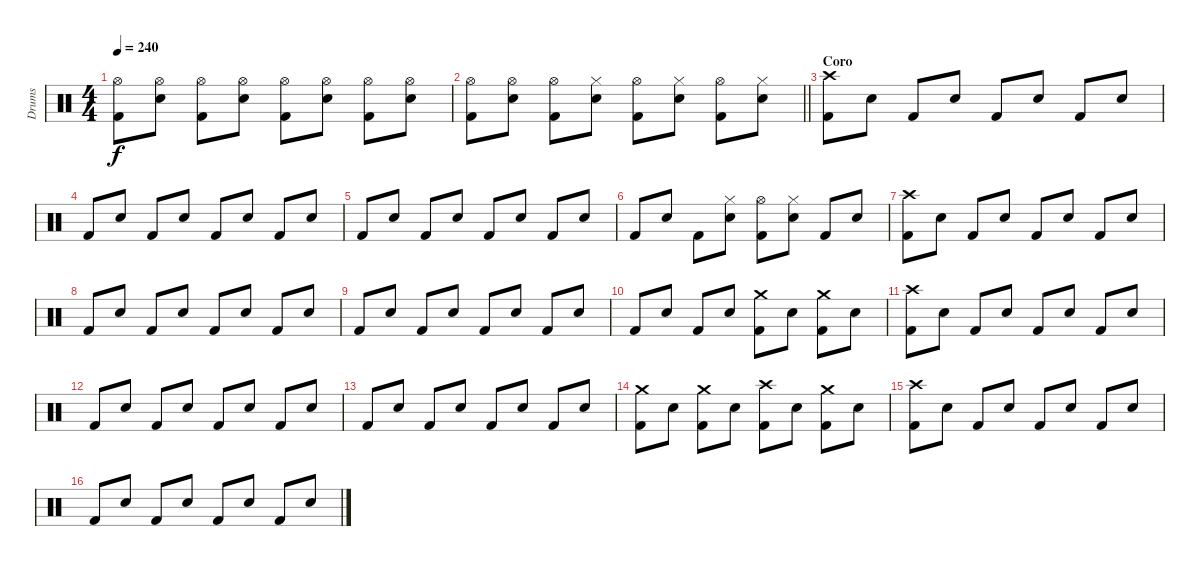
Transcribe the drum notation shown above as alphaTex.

\track ("Drums" "Drums") {instrument percussion}
\staff {score}
\articulation defaults
\ts (4 4)
\tempo 240
\clef neutral
\ks c
("Hi-Hat (open)" "Kick (hit) 2").8{dy f} ("Hi-Hat (open)" "Snare (hit) 2").8 ("Hi-Hat (open)" "Kick (hit) 2").8 ("Hi-Hat (open)" "Snare (hit) 2").8 ("Hi-Hat (open)" "Kick (hit) 2").8 ("Hi-Hat (open)" "Snare (hit) 2").8 ("Hi-Hat (open)" "Kick (hit) 2").8 ("Hi-Hat (open)" "Snare (hit) 2").8 |
\barLineRight lightlight
("Hi-Hat (open)" "Kick (hit) 2").8 ("Hi-Hat (open)" "Snare (hit) 2").8 ("Hi-Hat (open)" "Kick (hit) 2").8 ("Hi-Hat (closed)" "Snare (hit) 2").8 ("Hi-Hat (open)" "Kick (hit) 2").8 ("Hi-Hat (closed)" "Snare (hit) 2").8 ("Hi-Hat (open)" "Kick (hit) 2").8 ("Hi-Hat (closed)" "Snare (hit) 2").8 |
\section ("" "Coro")
("Crash high (hit)" "Kick (hit) 2").8 "Snare (hit) 2".8 "Kick (hit) 2".8 "Snare (hit) 2".8 "Kick (hit) 2".8 "Snare (hit) 2".8 "Kick (hit) 2".8 "Snare (hit) 2".8 |
"Kick (hit) 2".8 "Snare (hit) 2".8 "Kick (hit) 2".8 "Snare (hit) 2".8 "Kick (hit) 2".8 "Snare (hit) 2".8 "Kick (hit) 2".8 "Snare (hit) 2".8 |
"Kick (hit) 2".8 "Snare (hit) 2".8 "Kick (hit) 2".8 "Snare (hit) 2".8 "Kick (hit) 2".8 "Snare (hit) 2".8 "Kick (hit) 2".8 "Snare (hit) 2".8 |
"Kick (hit) 2".8 "Snare (hit) 2".8 "Kick (hit) 2".8 ("Hi-Hat (closed)" "Snare (hit) 2").8 ("Hi-Hat (open)" "Kick (hit) 2").8 ("Hi-Hat (closed)" "Snare (hit) 2").8 "Kick (hit) 2".8 "Snare (hit) 2".8 |
("Crash high (hit)" "Kick (hit) 2").8 "Snare (hit) 2".8 "Kick (hit) 2".8 "Snare (hit) 2".8 "Kick (hit) 2".8 "Snare (hit) 2".8 "Kick (hit) 2".8 "Snare (hit) 2".8 |
"Kick (hit) 2".8 "Snare (hit) 2".8 "Kick (hit) 2".8 "Snare (hit) 2".8 "Kick (hit) 2".8 "Snare (hit) 2".8 "Kick (hit) 2".8 "Snare (hit) 2".8 |
"Kick (hit) 2".8 "Snare (hit) 2".8 "Kick (hit) 2".8 "Snare (hit) 2".8 "Kick (hit) 2".8 "Snare (hit) 2".8 "Kick (hit) 2".8 "Snare (hit) 2".8 |
"Kick (hit) 2".8 "Snare (hit) 2".8 "Kick (hit) 2".8 "Snare (hit) 2".8 ("Crash medium (hit)" "Kick (hit) 2").8 "Snare (hit) 2".8 ("Crash medium (hit)" "Kick (hit) 2").8 "Snare (hit) 2".8 |
("Crash high (hit)" "Kick (hit) 2").8 "Snare (hit) 2".8 "Kick (hit) 2".8 "Snare (hit) 2".8 "Kick (hit) 2".8 "Snare (hit) 2".8 "Kick (hit) 2".8 "Snare (hit) 2".8 |
"Kick (hit) 2".8 "Snare (hit) 2".8 "Kick (hit) 2".8 "Snare (hit) 2".8 "Kick (hit) 2".8 "Snare (hit) 2".8 "Kick (hit) 2".8 "Snare (hit) 2".8 |
"Kick (hit) 2".8 "Snare (hit) 2".8 "Kick (hit) 2".8 "Snare (hit) 2".8 "Kick (hit) 2".8 "Snare (hit) 2".8 "Kick (hit) 2".8 "Snare (hit) 2".8 |
("Crash medium (hit)" "Kick (hit) 2").8 "Snare (hit) 2".8 ("Crash medium (hit)" "Kick (hit) 2").8 "Snare (hit) 2".8 ("Crash high (hit)" "Kick (hit) 2").8 "Snare (hit) 2".8 ("Crash medium (hit)" "Kick (hit) 2").8 "Snare (hit) 2".8 |
("Crash high (hit)" "Kick (hit) 2").8 "Snare (hit) 2".8 "Kick (hit) 2".8 "Snare (hit) 2".8 "Kick (hit) 2".8 "Snare (hit) 2".8 "Kick (hit) 2".8 "Snare (hit) 2".8 |
"Kick (hit) 2".8 "Snare (hit) 2".8 "Kick (hit) 2".8 "Snare (hit) 2".8 "Kick (hit) 2".8 "Snare (hit) 2".8 "Kick (hit) 2".8 "Snare (hit) 2".8
